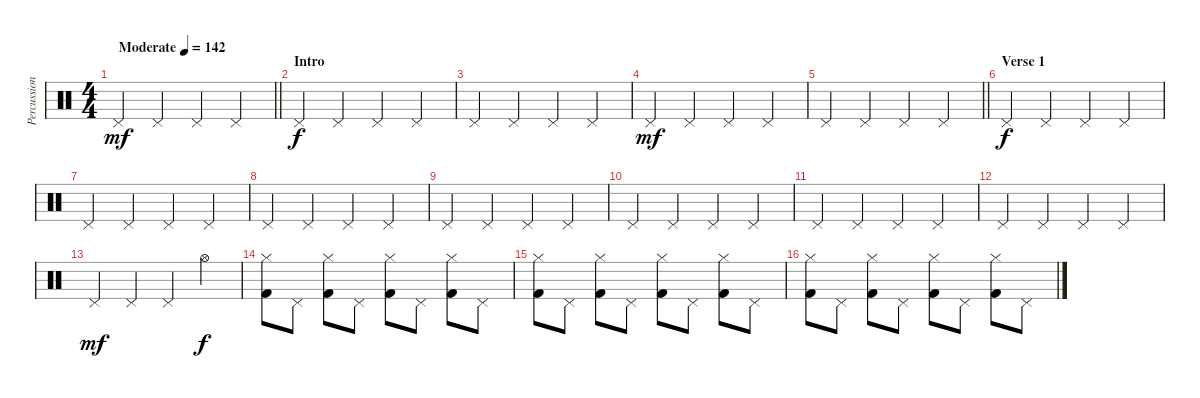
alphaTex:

\track ("Percussion" "Percussion") {instrument percussion}
\staff {score}
\articulation defaults
\ts (4 4)
\tempo (142 "Moderate")
\clef neutral
\barLineRight lightlight
\ks c "Pedal Hi-Hat (hit)".4{dy mf} "Pedal Hi-Hat (hit)".4 "Pedal Hi-Hat (hit)".4 "Pedal Hi-Hat (hit)".4
|
\section ("" "Intro")
"Pedal Hi-Hat (hit)".4{dy f} "Pedal Hi-Hat (hit)".4 "Pedal Hi-Hat (hit)".4 "Pedal Hi-Hat (hit)".4 |
"Pedal Hi-Hat (hit)".4 "Pedal Hi-Hat (hit)".4 "Pedal Hi-Hat (hit)".4 "Pedal Hi-Hat (hit)".4 |
"Pedal Hi-Hat (hit)".4{dy mf} "Pedal Hi-Hat (hit)".4 "Pedal Hi-Hat (hit)".4 "Pedal Hi-Hat (hit)".4 |
\barLineRight lightlight "Pedal Hi-Hat (hit)".4 "Pedal Hi-Hat (hit)".4 "Pedal Hi-Hat (hit)".4 "Pedal Hi-Hat (hit)".4
|
\section ("" "Verse 1")
"Pedal Hi-Hat (hit)".4{dy f} "Pedal Hi-Hat (hit)".4 "Pedal Hi-Hat (hit)".4 "Pedal Hi-Hat (hit)".4 |
"Pedal Hi-Hat (hit)".4 "Pedal Hi-Hat (hit)".4 "Pedal Hi-Hat (hit)".4 "Pedal Hi-Hat (hit)".4 |
"Pedal Hi-Hat (hit)".4 "Pedal Hi-Hat (hit)".4 "Pedal Hi-Hat (hit)".4 "Pedal Hi-Hat (hit)".4 |
"Pedal Hi-Hat (hit)".4 "Pedal Hi-Hat (hit)".4 "Pedal Hi-Hat (hit)".4 "Pedal Hi-Hat (hit)".4 |
"Pedal Hi-Hat (hit)".4 "Pedal Hi-Hat (hit)".4 "Pedal Hi-Hat (hit)".4 "Pedal Hi-Hat (hit)".4 |
"Pedal Hi-Hat (hit)".4 "Pedal Hi-Hat (hit)".4 "Pedal Hi-Hat (hit)".4 "Pedal Hi-Hat (hit)".4 |
"Pedal Hi-Hat (hit)".4 "Pedal Hi-Hat (hit)".4 "Pedal Hi-Hat (hit)".4 "Pedal Hi-Hat (hit)".4 |
"Pedal Hi-Hat (hit)".4{dy mf} "Pedal Hi-Hat (hit)".4 "Pedal Hi-Hat (hit)".4 "Hi-Hat (open)".4{dy f} |
("Hi-Hat (closed)" "Kick (hit) 2").8 "Pedal Hi-Hat (hit)".8 ("Hi-Hat (closed)" "Kick (hit) 2").8 "Pedal Hi-Hat (hit)".8 ("Hi-Hat (closed)" "Kick (hit) 2").8 "Pedal Hi-Hat (hit)".8 ("Hi-Hat (closed)" "Kick (hit) 2").8 "Pedal Hi-Hat (hit)".8 |
("Hi-Hat (closed)" "Kick (hit) 2").8 "Pedal Hi-Hat (hit)".8 ("Hi-Hat (closed)" "Kick (hit) 2").8 "Pedal Hi-Hat (hit)".8 ("Hi-Hat (closed)" "Kick (hit) 2").8 "Pedal Hi-Hat (hit)".8 ("Hi-Hat (closed)" "Kick (hit) 2").8 "Pedal Hi-Hat (hit)".8 |
("Hi-Hat (closed)" "Kick (hit) 2").8 "Pedal Hi-Hat (hit)".8 ("Hi-Hat (closed)" "Kick (hit) 2").8 "Pedal Hi-Hat (hit)".8 ("Hi-Hat (closed)" "Kick (hit) 2").8 "Pedal Hi-Hat (hit)".8 ("Hi-Hat (closed)" "Kick (hit) 2").8 "Pedal Hi-Hat (hit)".8
